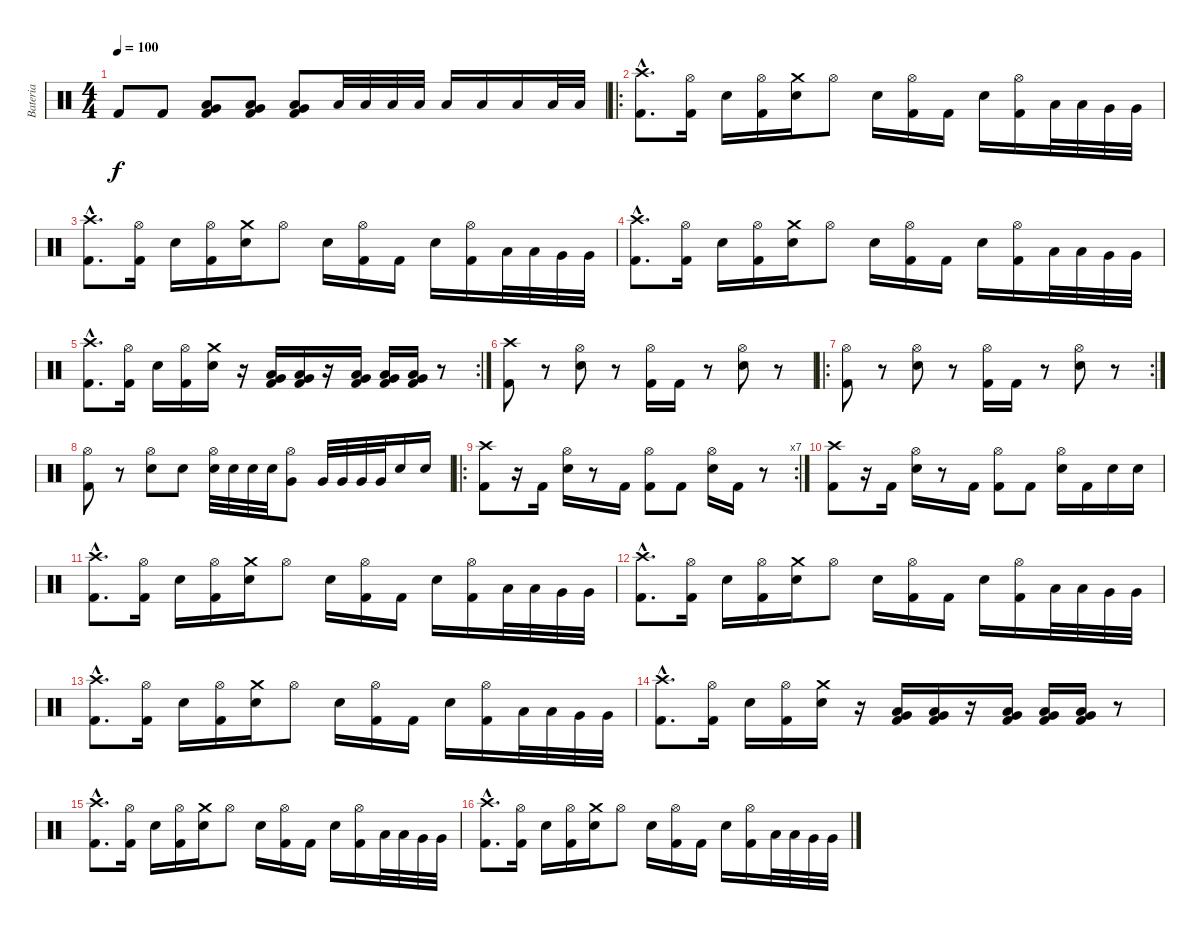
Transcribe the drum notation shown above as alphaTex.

\track ("Bateria" "Bateria") {instrument percussion}
\staff {score}
\articulation defaults
\ts (4 4)
\tempo 100
\clef neutral
\ks c "Kick (hit) 2".8{dy f} "Kick (hit) 2".8
("Low Tom (hit)" "Very Low Tom (hit)" "Kick (hit) 2").8 ("Low Tom (hit)" "Very Low Tom (hit)" "Kick (hit) 2").8 ("Low Tom (hit)" "Very Low Tom (hit)" "Kick (hit) 2").8 "Low Tom (hit)".32 "Low Tom (hit)".32 "Low Tom (hit)".32 "Low Tom (hit)".32 "Low Tom (hit)".16 "Low Tom (hit)".16 "Low Tom (hit)".16 "Low Tom (hit)".32 "Low Tom (hit)".32 |
\ro
("Crash high (hit)"{hac} "Kick (hit) 2"{hac}).8{d} ("Hi-Hat (open)" "Kick (hit) 2").16 "Snare (hit) 2".16 ("Hi-Hat (open)" "Kick (hit) 2").16 ("Crash medium (hit)" "Snare (hit) 2").16 "Hi-Hat (open)".8 "Snare (hit) 2".16 ("Hi-Hat (open)" "Kick (hit) 2").16 "Kick (hit) 2".16 "Snare (hit) 2".16 ("Hi-Hat (open)" "Kick (hit) 2").16 "Low Tom (hit)".32 "Low Tom (hit)".32 "Very Low Tom (hit)".32 "Very Low Tom (hit)".32 |
("Crash high (hit)"{hac} "Kick (hit) 2"{hac}).8{d} ("Hi-Hat (open)" "Kick (hit) 2").16 "Snare (hit) 2".16 ("Hi-Hat (open)" "Kick (hit) 2").16 ("Crash medium (hit)" "Snare (hit) 2").16 "Hi-Hat (open)".8 "Snare (hit) 2".16 ("Hi-Hat (open)" "Kick (hit) 2").16 "Kick (hit) 2".16 "Snare (hit) 2".16 ("Hi-Hat (open)" "Kick (hit) 2").16 "Low Tom (hit)".32 "Low Tom (hit)".32 "Very Low Tom (hit)".32 "Very Low Tom (hit)".32 |
("Crash high (hit)"{hac} "Kick (hit) 2"{hac}).8{d} ("Hi-Hat (open)" "Kick (hit) 2").16 "Snare (hit) 2".16 ("Hi-Hat (open)" "Kick (hit) 2").16 ("Crash medium (hit)" "Snare (hit) 2").16 "Hi-Hat (open)".8 "Snare (hit) 2".16 ("Hi-Hat (open)" "Kick (hit) 2").16 "Kick (hit) 2".16 "Snare (hit) 2".16 ("Hi-Hat (open)" "Kick (hit) 2").16 "Low Tom (hit)".32 "Low Tom (hit)".32 "Very Low Tom (hit)".32 "Very Low Tom (hit)".32 |
\rc 2
("Crash high (hit)"{hac} "Kick (hit) 2"{hac}).8{d} ("Hi-Hat (open)" "Kick (hit) 2").16 "Snare (hit) 2".16 ("Hi-Hat (open)" "Kick (hit) 2").16 ("Crash medium (hit)" "Snare (hit) 2").16 r.16 ("Low Tom (hit)" "Very Low Tom (hit)" "Kick (hit) 2").16 ("Low Tom (hit)" "Very Low Tom (hit)" "Kick (hit) 2").16 r.16 ("Low Tom (hit)" "Very Low Tom (hit)" "Kick (hit) 2").16 ("Low Tom (hit)" "Very Low Tom (hit)" "Kick (hit) 2").16 ("Low Tom (hit)" "Very Low Tom (hit)" "Kick (hit) 2").16 r.8 |
("Crash high (hit)" "Kick (hit) 2").8 r.8 ("Hi-Hat (open)" "Snare (hit) 2").8 r.8 ("Hi-Hat (open)" "Kick (hit) 2").16 "Kick (hit) 2".16 r.8 ("Hi-Hat (open)" "Snare (hit) 2").8 r.8 |
\ro
\rc 2
("Hi-Hat (open)" "Kick (hit) 2").8 r.8 ("Hi-Hat (open)" "Snare (hit) 2").8 r.8 ("Hi-Hat (open)" "Kick (hit) 2").16 "Kick (hit) 2".16 r.8 ("Hi-Hat (open)" "Snare (hit) 2").8 r.8 |
("Hi-Hat (open)" "Kick (hit) 2").8 r.8 ("Hi-Hat (open)" "Snare (hit) 2").8 "Snare (hit) 2".8 ("Hi-Hat (open)" "Snare (hit) 2").32 "Snare (hit) 2".32 "Snare (hit) 2".32 "Snare (hit) 2".32 ("Hi-Hat (open)" "Very Low Tom (hit)").8 "Very Low Tom (hit)".32 "Very Low Tom (hit)".32 "Very Low Tom (hit)".32 "Very Low Tom (hit)".32 "Snare (hit) 2".16 "Snare (hit) 2".16 |
\ro
\rc 7
("Crash high (hit)" "Kick (hit) 2").8 r.16 "Kick (hit) 2".16 ("Hi-Hat (open)" "Snare (hit) 2").16 r.8 "Kick (hit) 2".16 ("Hi-Hat (open)" "Kick (hit) 2").8 "Kick (hit) 2".8 ("Hi-Hat (open)" "Snare (hit) 2").16 "Kick (hit) 2".16 r.8 |
("Crash high (hit)" "Kick (hit) 2").8 r.16 "Kick (hit) 2".16 ("Hi-Hat (open)" "Snare (hit) 2").16 r.8 "Kick (hit) 2".16 ("Hi-Hat (open)" "Kick (hit) 2").8 "Kick (hit) 2".8 ("Hi-Hat (open)" "Snare (hit) 2").16 "Kick (hit) 2".16 "Snare (hit) 2".16 "Snare (hit) 2".16 |
("Crash high (hit)"{hac} "Kick (hit) 2"{hac}).8{d} ("Hi-Hat (open)" "Kick (hit) 2").16 "Snare (hit) 2".16 ("Hi-Hat (open)" "Kick (hit) 2").16 ("Crash medium (hit)" "Snare (hit) 2").16 "Hi-Hat (open)".8 "Snare (hit) 2".16 ("Hi-Hat (open)" "Kick (hit) 2").16 "Kick (hit) 2".16 "Snare (hit) 2".16 ("Hi-Hat (open)" "Kick (hit) 2").16 "Low Tom (hit)".32 "Low Tom (hit)".32 "Very Low Tom (hit)".32 "Very Low Tom (hit)".32 |
("Crash high (hit)"{hac} "Kick (hit) 2"{hac}).8{d} ("Hi-Hat (open)" "Kick (hit) 2").16 "Snare (hit) 2".16 ("Hi-Hat (open)" "Kick (hit) 2").16 ("Crash medium (hit)" "Snare (hit) 2").16 "Hi-Hat (open)".8 "Snare (hit) 2".16 ("Hi-Hat (open)" "Kick (hit) 2").16 "Kick (hit) 2".16 "Snare (hit) 2".16 ("Hi-Hat (open)" "Kick (hit) 2").16 "Low Tom (hit)".32 "Low Tom (hit)".32 "Very Low Tom (hit)".32 "Very Low Tom (hit)".32 |
("Crash high (hit)"{hac} "Kick (hit) 2"{hac}).8{d} ("Hi-Hat (open)" "Kick (hit) 2").16 "Snare (hit) 2".16 ("Hi-Hat (open)" "Kick (hit) 2").16 ("Crash medium (hit)" "Snare (hit) 2").16 "Hi-Hat (open)".8 "Snare (hit) 2".16 ("Hi-Hat (open)" "Kick (hit) 2").16 "Kick (hit) 2".16 "Snare (hit) 2".16 ("Hi-Hat (open)" "Kick (hit) 2").16 "Low Tom (hit)".32 "Low Tom (hit)".32 "Very Low Tom (hit)".32 "Very Low Tom (hit)".32 |
("Crash high (hit)"{hac} "Kick (hit) 2"{hac}).8{d} ("Hi-Hat (open)" "Kick (hit) 2").16 "Snare (hit) 2".16 ("Hi-Hat (open)" "Kick (hit) 2").16 ("Crash medium (hit)" "Snare (hit) 2").16 r.16 ("Low Tom (hit)" "Very Low Tom (hit)" "Kick (hit) 2").16 ("Low Tom (hit)" "Very Low Tom (hit)" "Kick (hit) 2").16 r.16 ("Low Tom (hit)" "Very Low Tom (hit)" "Kick (hit) 2").16 ("Low Tom (hit)" "Very Low Tom (hit)" "Kick (hit) 2").16 ("Low Tom (hit)" "Very Low Tom (hit)" "Kick (hit) 2").16 r.8 |
("Crash high (hit)"{hac} "Kick (hit) 2"{hac}).8{d} ("Hi-Hat (open)" "Kick (hit) 2").16 "Snare (hit) 2".16 ("Hi-Hat (open)" "Kick (hit) 2").16 ("Crash medium (hit)" "Snare (hit) 2").16 "Hi-Hat (open)".8 "Snare (hit) 2".16 ("Hi-Hat (open)" "Kick (hit) 2").16 "Kick (hit) 2".16 "Snare (hit) 2".16 ("Hi-Hat (open)" "Kick (hit) 2").16 "Low Tom (hit)".32 "Low Tom (hit)".32 "Very Low Tom (hit)".32 "Very Low Tom (hit)".32 |
("Crash high (hit)"{hac} "Kick (hit) 2"{hac}).8{d} ("Hi-Hat (open)" "Kick (hit) 2").16 "Snare (hit) 2".16 ("Hi-Hat (open)" "Kick (hit) 2").16 ("Crash medium (hit)" "Snare (hit) 2").16 "Hi-Hat (open)".8 "Snare (hit) 2".16 ("Hi-Hat (open)" "Kick (hit) 2").16 "Kick (hit) 2".16 "Snare (hit) 2".16 ("Hi-Hat (open)" "Kick (hit) 2").16 "Low Tom (hit)".32 "Low Tom (hit)".32 "Very Low Tom (hit)".32 "Very Low Tom (hit)".32
